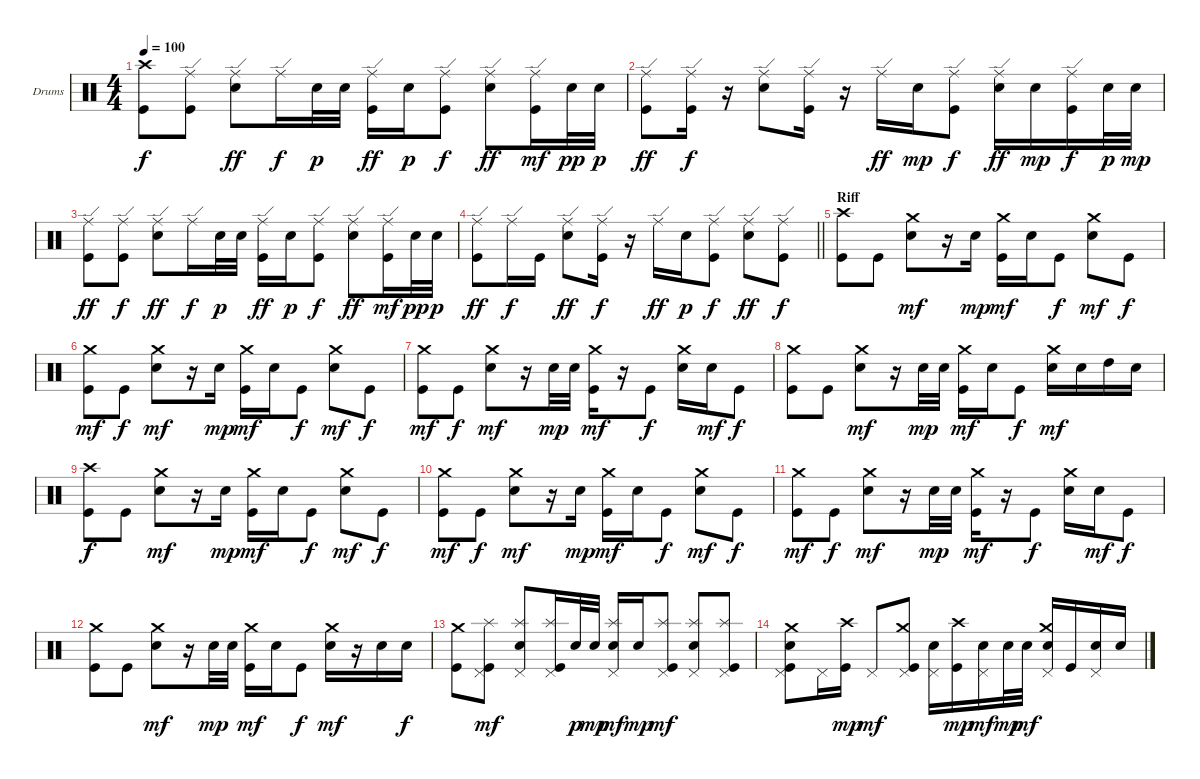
\bracketExtendMode groupsimilarinstruments
\firstSystemTrackNameOrientation horizontal
\otherSystemsTrackNameOrientation horizontal
\track ("Drumkit" "Drums") {solo instrument percussion}
\staff {score}
\articulation defaults
\ts (4 4)
\tempo 100
\clef neutral
\ks c
("Crash high (hit)" "Kick (hit)").8{dy f} ("Ride (edge)" "Kick (hit)").8 ("Ride (edge)" "Snare (hit) 2").8{dy ff} "Ride (edge)".16{dy f} "Snare (hit) 2".32{dy p} "Snare (hit) 2".32 ("Ride (edge)" "Kick (hit)").16{dy ff} "Snare (hit) 2".16{dy p} ("Ride (edge)" "Kick (hit)").8{dy f} ("Ride (edge)" "Snare (hit) 2").8{dy ff} ("Ride (edge)" "Kick (hit)").16{dy mf} "Snare (hit) 2".32{dy pp} "Snare (hit) 2".32{dy p} |
("Ride (edge)" "Kick (hit)").8{dy ff} ("Ride (edge)" "Kick (hit)").16{dy f} r.16 ("Ride (edge)" "Snare (hit) 2").8 ("Ride (edge)" "Kick (hit)").16 r.16 "Ride (edge)".16{dy ff} "Snare (hit) 2".16{dy mp} ("Ride (edge)" "Kick (hit)").8{dy f} ("Ride (edge)" "Snare (hit) 2").16{dy ff} "Snare (hit) 2".16{dy mp} ("Ride (edge)" "Kick (hit)").16{dy f} "Snare (hit) 2".32{dy p} "Snare (hit) 2".32{dy mp} |
("Ride (edge)" "Kick (hit)").8{dy ff} ("Ride (edge)" "Kick (hit)").8{dy f} ("Ride (edge)" "Snare (hit) 2").8{dy ff} "Ride (edge)".16{dy f} "Snare (hit) 2".32{dy p} "Snare (hit) 2".32 ("Ride (edge)" "Kick (hit)").16{dy ff} "Snare (hit) 2".16{dy p} ("Ride (edge)" "Kick (hit)").8{dy f} ("Ride (edge)" "Snare (hit) 2").8{dy ff} ("Ride (edge)" "Kick (hit)").16{dy mf} "Snare (hit) 2".32{dy pp} "Snare (hit) 2".32{dy p} |
\barLineRight lightlight
("Ride (edge)" "Kick (hit)").8{dy ff} "Ride (edge)".16{dy f} "Kick (hit)".16 ("Ride (edge)" "Snare (hit) 2").8{dy ff} ("Ride (edge)" "Kick (hit)").16{dy f} r.16 "Ride (edge)".16{dy ff} "Snare (hit) 2".16{dy p} ("Ride (edge)" "Kick (hit)").8{dy f} ("Ride (edge)" "Snare (hit) 2").8{dy ff} ("Ride (edge)" "Kick (hit)").8{dy f} |
\section ("" "Riff")
("Crash high (hit)" "Kick (hit)").8 "Kick (hit)".8 ("Crash medium (hit)" "Snare (hit) 2").8{dy mf} r.16 "Snare (hit) 2".16{dy mp} ("Crash medium (hit)" "Kick (hit)").16{dy mf} "Snare (hit) 2".16 "Kick (hit)".8{dy f} ("Crash medium (hit)" "Snare (hit) 2").8{dy mf} "Kick (hit)".8{dy f} |
("Crash medium (hit)" "Kick (hit)").8{dy mf} "Kick (hit)".8{dy f} ("Crash medium (hit)" "Snare (hit) 2").8{dy mf} r.16 "Snare (hit) 2".16{dy mp} ("Crash medium (hit)" "Kick (hit)").16{dy mf} "Snare (hit) 2".16 "Kick (hit)".8{dy f} ("Crash medium (hit)" "Snare (hit) 2").8{dy mf} "Kick (hit)".8{dy f} |
("Crash medium (hit)" "Kick (hit)").8{dy mf} "Kick (hit)".8{dy f} ("Crash medium (hit)" "Snare (hit) 2").8{dy mf} r.16 "Snare (hit) 2".32{dy mp} "Snare (hit) 2".32 ("Crash medium (hit)" "Kick (hit)").16{dy mf} r.16 "Kick (hit)".8{dy f} ("Crash medium (hit)" "Snare (hit) 2").16 "Snare (hit) 2".16{dy mf} "Kick (hit)".8{dy f} |
("Crash medium (hit)" "Kick (hit)").8 "Kick (hit)".8 ("Crash medium (hit)" "Snare (hit) 2").8{dy mf} r.16 "Snare (hit) 2".32{dy mp} "Snare (hit) 2".32 ("Crash medium (hit)" "Kick (hit)").16{dy mf} "Snare (hit) 2".16 "Kick (hit)".8{dy f} ("Crash medium (hit)" "Snare (hit) 2").16{dy mf} "Snare (hit) 2".16 "High Tom (hit)".16 "Snare (hit) 2".16 |
("Crash high (hit)" "Kick (hit)").8{dy f} "Kick (hit)".8 ("Crash medium (hit)" "Snare (hit) 2").8{dy mf} r.16 "Snare (hit) 2".16{dy mp} ("Crash medium (hit)" "Kick (hit)").16{dy mf} "Snare (hit) 2".16 "Kick (hit)".8{dy f} ("Crash medium (hit)" "Snare (hit) 2").8{dy mf} "Kick (hit)".8{dy f} |
("Crash medium (hit)" "Kick (hit)").8{dy mf} "Kick (hit)".8{dy f} ("Crash medium (hit)" "Snare (hit) 2").8{dy mf} r.16 "Snare (hit) 2".16{dy mp} ("Crash medium (hit)" "Kick (hit)").16{dy mf} "Snare (hit) 2".16 "Kick (hit)".8{dy f} ("Crash medium (hit)" "Snare (hit) 2").8{dy mf} "Kick (hit)".8{dy f} |
("Crash medium (hit)" "Kick (hit)").8{dy mf} "Kick (hit)".8{dy f} ("Crash medium (hit)" "Snare (hit) 2").8{dy mf} r.16 "Snare (hit) 2".32{dy mp} "Snare (hit) 2".32 ("Crash medium (hit)" "Kick (hit)").16{dy mf} r.16 "Kick (hit)".8{dy f} ("Crash medium (hit)" "Snare (hit) 2").16 "Snare (hit) 2".16{dy mf} "Kick (hit)".8{dy f} |
("Crash medium (hit)" "Kick (hit)").8 "Kick (hit)".8 ("Crash medium (hit)" "Snare (hit) 2").8{dy mf} r.16 "Snare (hit) 2".32{dy mp} "Snare (hit) 2".32 ("Crash medium (hit)" "Kick (hit)").16{dy mf} "Snare (hit) 2".16 "Kick (hit)".8{dy f} ("Crash medium (hit)" "Snare (hit) 2").16{dy mf} r.16 "Snare (hit) 2".16 "Snare (hit) 2".16{dy f} |
("Crash medium (hit)" "Kick (hit)").8 ("Splash (hit)" "Pedal Hi-Hat (hit)" "Kick (hit)").8{dy mf} ("Splash (hit)" "Pedal Hi-Hat (hit)" "Snare (hit) 2").8 ("Splash (hit)" "Pedal Hi-Hat (hit)" "Kick (hit)").16 "Snare (hit) 2".32{dy p} "Snare (hit) 2".32{dy mp} ("Splash (hit)" "Pedal Hi-Hat (hit)" "Snare (hit) 2").16{dy mf} "Snare (hit) 2".16{dy mp} ("Splash (hit)" "Pedal Hi-Hat (hit)" "Kick (hit)").8{dy mf} ("Splash (hit)" "Pedal Hi-Hat (hit)" "Snare (hit) 2").8 ("Splash (hit)" "Pedal Hi-Hat (hit)" "Kick (hit)").8 |
("Crash medium (hit)" "Pedal Hi-Hat (hit)" "Snare (hit) 2" "Kick (hit)").8 "Pedal Hi-Hat (hit)".16 ("Crash high (hit)" "Kick (hit)").16{dy mp} "Pedal Hi-Hat (hit)".8{dy mf} ("Crash medium (hit)" "Pedal Hi-Hat (hit)" "Kick (hit)").8 ("Pedal Hi-Hat (hit)" "Snare (hit) 2").16 ("Crash high (hit)" "Kick (hit)").16{dy mp} ("Pedal Hi-Hat (hit)" "Snare (hit) 2").16{dy mf} "Snare (hit) 2".32{dy mp} "Snare (hit) 2".32{dy mf} ("Crash medium (hit)" "Pedal Hi-Hat (hit)" "Snare (hit) 2").16 "Kick (hit)".16 ("Pedal Hi-Hat (hit)" "Snare (hit) 2").16 "Snare (hit) 2".16
